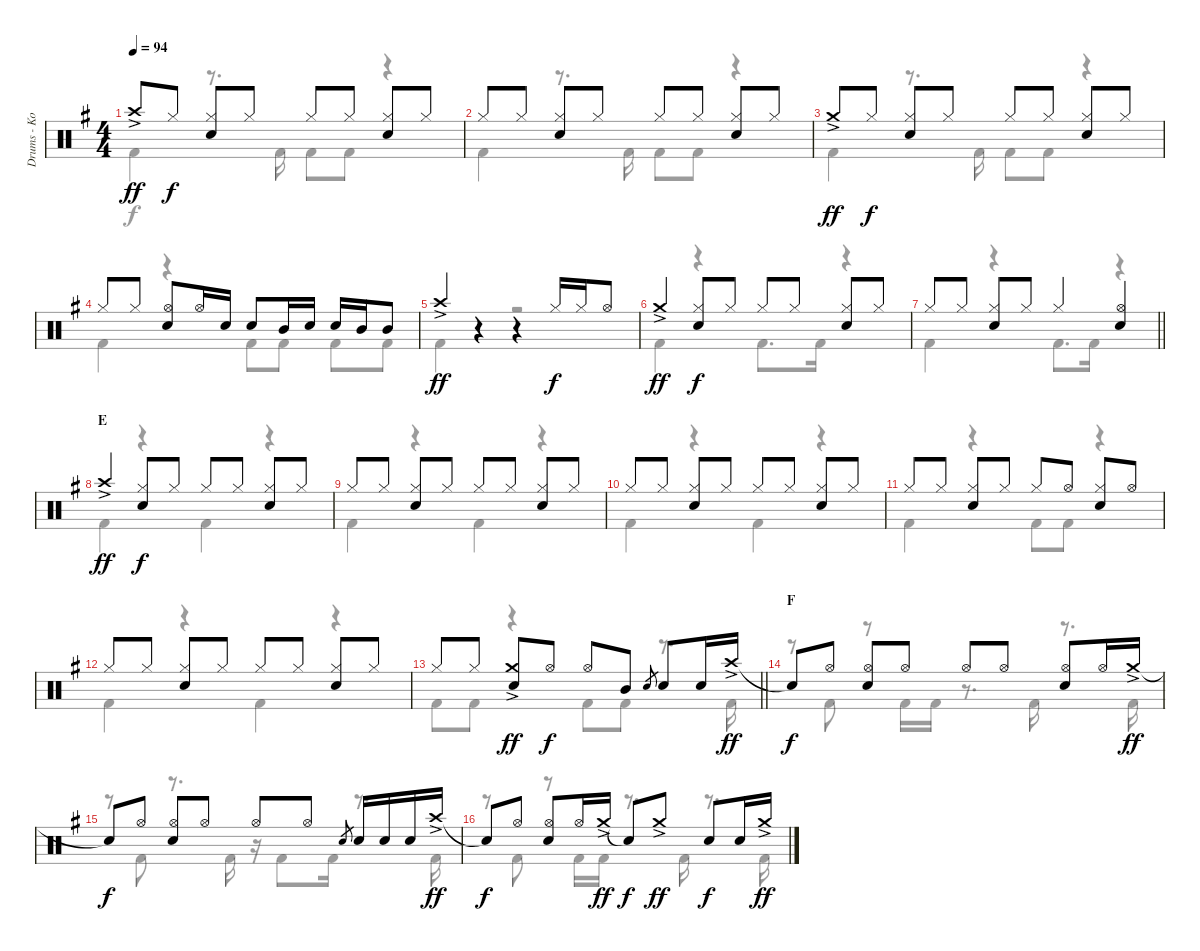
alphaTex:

\track ("Drums - Koji Hasegawa" "Drums - Ko") {instrument percussion}
\staff {score}
\articulation defaults
\voice
\ts (4 4)
\tempo 94
\clef neutral
\ks g "Crash high (hit)"{ac}.8{dy ff} "Hi-Hat (closed)".8{dy f}
("Hi-Hat (closed)" "Electric Snare (hit)").8 "Hi-Hat (closed)".8 "Hi-Hat (closed)".8 "Hi-Hat (closed)".8 ("Hi-Hat (closed)" "Electric Snare (hit)").8 "Hi-Hat (closed)".8 |
"Hi-Hat (closed)".8 "Hi-Hat (closed)".8 ("Hi-Hat (closed)" "Electric Snare (hit)").8 "Hi-Hat (closed)".8 "Hi-Hat (closed)".8 "Hi-Hat (closed)".8 ("Hi-Hat (closed)" "Electric Snare (hit)").8 "Hi-Hat (closed)".8 |
"Crash medium (hit)"{ac}.8{dy ff} "Hi-Hat (closed)".8{dy f} ("Hi-Hat (closed)" "Electric Snare (hit)").8 "Hi-Hat (closed)".8 "Hi-Hat (closed)".8 "Hi-Hat (closed)".8 ("Hi-Hat (closed)" "Electric Snare (hit)").8 "Hi-Hat (closed)".8 |
"Hi-Hat (closed)".8 "Hi-Hat (closed)".8 ("Hi-Hat (open)" "Electric Snare (hit)").8 "Hi-Hat (open)".16 "Electric Snare (hit)".16 "Electric Snare (hit)".8 "Mid Tom (hit)".16 "Electric Snare (hit)".16 "Electric Snare (hit)".16 "Mid Tom (hit)".16 "Mid Tom (hit)".8 |
"Crash high (hit)"{ac}.4{dy ff} r.4 r.4 "Hi-Hat (closed)".16{dy f} "Hi-Hat (closed)".16 "Hi-Hat (open)".8 |
"Crash medium (hit)"{ac}.4{dy ff} ("Hi-Hat (closed)" "Electric Snare (hit)").8{dy f} "Hi-Hat (closed)".8 "Hi-Hat (closed)".8 "Hi-Hat (closed)".8 ("Hi-Hat (closed)" "Electric Snare (hit)").8 "Hi-Hat (closed)".8 |
\barLineRight lightlight "Hi-Hat (closed)".8 "Hi-Hat (closed)".8
("Hi-Hat (closed)" "Electric Snare (hit)").8 "Hi-Hat (closed)".8 "Hi-Hat (closed)".4 ("Hi-Hat (open)" "Electric Snare (hit)").4 |
\section ("" "E")
"Crash high (hit)"{ac}.4{dy ff} ("Hi-Hat (closed)" "Electric Snare (hit)").8{dy f} "Hi-Hat (closed)".8 "Hi-Hat (closed)".8 "Hi-Hat (closed)".8 ("Hi-Hat (closed)" "Electric Snare (hit)").8 "Hi-Hat (closed)".8 |
"Hi-Hat (closed)".8 "Hi-Hat (closed)".8 ("Hi-Hat (closed)" "Electric Snare (hit)").8 "Hi-Hat (closed)".8 "Hi-Hat (closed)".8 "Hi-Hat (closed)".8 ("Hi-Hat (closed)" "Electric Snare (hit)").8 "Hi-Hat (closed)".8 |
"Hi-Hat (closed)".8 "Hi-Hat (closed)".8 ("Hi-Hat (closed)" "Electric Snare (hit)").8 "Hi-Hat (closed)".8 "Hi-Hat (closed)".8 "Hi-Hat (closed)".8 ("Hi-Hat (closed)" "Electric Snare (hit)").8 "Hi-Hat (closed)".8 |
"Hi-Hat (closed)".8 "Hi-Hat (closed)".8 ("Hi-Hat (closed)" "Electric Snare (hit)").8 "Hi-Hat (closed)".8 "Hi-Hat (closed)".8 "Hi-Hat (open)".8 ("Hi-Hat (closed)" "Electric Snare (hit)").8 "Hi-Hat (open)".8 |
"Hi-Hat (closed)".8 "Hi-Hat (closed)".8 ("Hi-Hat (closed)" "Electric Snare (hit)").8 "Hi-Hat (closed)".8 "Hi-Hat (closed)".8 "Hi-Hat (closed)".8 ("Hi-Hat (closed)" "Electric Snare (hit)").8 "Hi-Hat (closed)".8 |
\barLineRight lightlight "Hi-Hat (closed)".8 "Hi-Hat (closed)".8
("Crash medium (hit)"{ac} "Electric Snare (hit)").8{dy ff} "Hi-Hat (open)".8{dy f} "Hi-Hat (open)".8 "Mid Tom (hit)".8 "Electric Snare (hit)".8{gr} "Electric Snare (hit)".8 "Electric Snare (hit)".16 "Crash high (hit)"{ac}.16{dy ff} |
\section ("" "F")
"Snare (hit)"{t}.8{dy f} "Hi-Hat (open)".8 ("Hi-Hat (open)" "Snare (hit) 2").8 "Hi-Hat (open)".8 "Hi-Hat (open)".8 "Hi-Hat (open)".8 ("Hi-Hat (open)" "Snare (hit) 2").8 "Hi-Hat (open)".16 "Crash medium (hit)"{ac}.16{dy ff} |
"Snare (hit)"{t}.8{dy f} "Hi-Hat (open)".8 ("Hi-Hat (open)" "Electric Snare (hit)").8 "Hi-Hat (open)".8 "Hi-Hat (open)".8 "Hi-Hat (open)".8 "Electric Snare (hit)".8{gr} "Electric Snare (hit)".16 "Electric Snare (hit)".16 "Electric Snare (hit)".16 "Crash high (hit)"{ac}.16{dy ff} |
"Snare (hit)"{t}.8{dy f} "Hi-Hat (open)".8 ("Hi-Hat (open)" "Electric Snare (hit)").8 "Hi-Hat (open)".16 "Crash medium (hit)"{ac}.16{dy ff} "Snare (hit)"{t}.8{dy f} "Crash medium (hit)"{ac}.8{dy ff} "Electric Snare (hit)".8{dy f} "Electric Snare (hit)".16 "Crash medium (hit)"{ac}.16{dy ff}
\voice
\clef neutral
\ottava regular
\simile none
\ks g "Kick (hit) 2".4{dy f}
r.8{d} "Kick (hit) 2".16 "Kick (hit) 2".8 "Kick (hit) 2".8 r.4 |
"Kick (hit) 2".4 r.8{d} "Kick (hit) 2".16 "Kick (hit) 2".8 "Kick (hit) 2".8 r.4 |
"Kick (hit) 2".4 r.8{d} "Kick (hit) 2".16 "Kick (hit) 2".8 "Kick (hit) 2".8 r.4 |
"Kick (hit) 2".4 r.4 "Kick (hit) 2".8 "Kick (hit) 2".8 "Kick (hit) 2".8 "Kick (hit) 2".8 |
"Kick (hit) 2".4 r.4 r.2 |
"Kick (hit) 2".4 r.4 "Kick (hit) 2".8{d} "Kick (hit) 2".16 r.4 |
\barLineRight lightlight "Kick (hit) 2".4
r.4 "Kick (hit) 2".8{d} "Kick (hit) 2".16 r.4 |
"Kick (hit) 2".4 r.4 "Kick (hit) 2".4 r.4 |
"Kick (hit) 2".4 r.4 "Kick (hit) 2".4 r.4 |
"Kick (hit) 2".4 r.4 "Kick (hit) 2".4 r.4 |
"Kick (hit) 2".4 r.4 "Kick (hit) 2".8 "Kick (hit) 2".8 r.4 |
"Kick (hit) 2".4 r.4 "Kick (hit) 2".4 r.4 |
\barLineRight lightlight "Kick (hit) 2".8 "Kick (hit) 2".8
r.4 "Kick (hit) 2".8 "Kick (hit) 2".8 r.8{d} "Kick (hit) 2".16 |
r.8 "Kick (hit) 2".8 r.8 "Kick (hit) 2".16 "Kick (hit) 2".16 r.8{d} "Kick (hit) 2".16 r.8{d} "Kick (hit) 2".16 |
r.8 "Kick (hit) 2".8 r.8{d} "Kick (hit) 2".16 r.16 "Kick (hit) 2".8 "Kick (hit) 2".16 r.8{d} "Kick (hit) 2".16 |
r.8 "Kick (hit) 2".8 r.8 "Kick (hit) 2".16 "Kick (hit) 2".16 r.8{d} "Kick (hit) 2".16 r.8{d} "Kick (hit) 2".16
